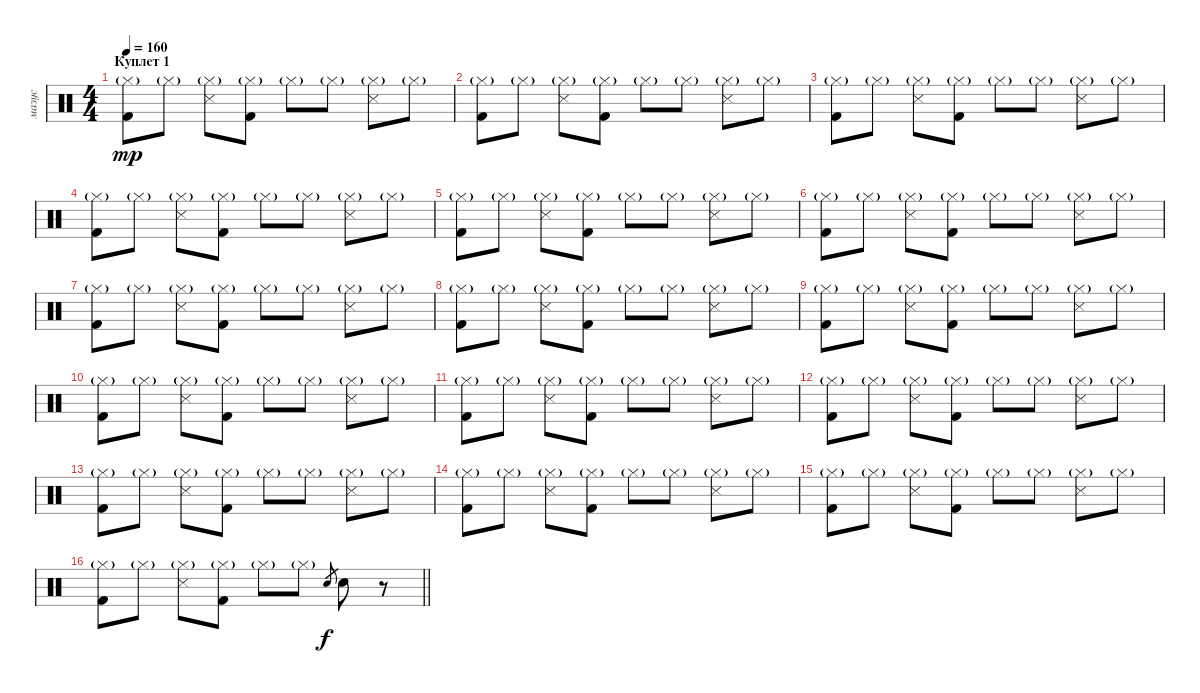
\track ("мазус" "мазус") {instrument percussion}
\staff {score}
\articulation defaults
\ts (4 4)
\section ("" "Куплет 1")
\tempo 160
\clef neutral
\ks c
("Kick (hit) 2" "Hi-Hat (closed)"{g}).8{dy mp} "Hi-Hat (closed)"{g}.8 ("Snare (side stick) 3" "Hi-Hat (closed)"{g}).8 ("Kick (hit) 2" "Hi-Hat (closed)"{g}).8 "Hi-Hat (closed)"{g}.8 "Hi-Hat (closed)"{g}.8 ("Snare (side stick) 3" "Hi-Hat (closed)"{g}).8 "Hi-Hat (closed)"{g}.8 |
("Kick (hit) 2" "Hi-Hat (closed)"{g}).8 "Hi-Hat (closed)"{g}.8 ("Snare (side stick) 3" "Hi-Hat (closed)"{g}).8 ("Kick (hit) 2" "Hi-Hat (closed)"{g}).8 "Hi-Hat (closed)"{g}.8 "Hi-Hat (closed)"{g}.8 ("Snare (side stick) 3" "Hi-Hat (closed)"{g}).8 "Hi-Hat (closed)"{g}.8 |
("Kick (hit) 2" "Hi-Hat (closed)"{g}).8 "Hi-Hat (closed)"{g}.8 ("Snare (side stick) 3" "Hi-Hat (closed)"{g}).8 ("Kick (hit) 2" "Hi-Hat (closed)"{g}).8 "Hi-Hat (closed)"{g}.8 "Hi-Hat (closed)"{g}.8 ("Snare (side stick) 3" "Hi-Hat (closed)"{g}).8 "Hi-Hat (closed)"{g}.8 |
("Kick (hit) 2" "Hi-Hat (closed)"{g}).8 "Hi-Hat (closed)"{g}.8 ("Snare (side stick) 3" "Hi-Hat (closed)"{g}).8 ("Kick (hit) 2" "Hi-Hat (closed)"{g}).8 "Hi-Hat (closed)"{g}.8 "Hi-Hat (closed)"{g}.8 ("Snare (side stick) 3" "Hi-Hat (closed)"{g}).8 "Hi-Hat (closed)"{g}.8 |
("Kick (hit) 2" "Hi-Hat (closed)"{g}).8 "Hi-Hat (closed)"{g}.8 ("Snare (side stick) 3" "Hi-Hat (closed)"{g}).8 ("Kick (hit) 2" "Hi-Hat (closed)"{g}).8 "Hi-Hat (closed)"{g}.8 "Hi-Hat (closed)"{g}.8 ("Snare (side stick) 3" "Hi-Hat (closed)"{g}).8 "Hi-Hat (closed)"{g}.8 |
("Kick (hit) 2" "Hi-Hat (closed)"{g}).8 "Hi-Hat (closed)"{g}.8 ("Snare (side stick) 3" "Hi-Hat (closed)"{g}).8 ("Kick (hit) 2" "Hi-Hat (closed)"{g}).8 "Hi-Hat (closed)"{g}.8 "Hi-Hat (closed)"{g}.8 ("Snare (side stick) 3" "Hi-Hat (closed)"{g}).8 "Hi-Hat (closed)"{g}.8 |
("Kick (hit) 2" "Hi-Hat (closed)"{g}).8 "Hi-Hat (closed)"{g}.8 ("Snare (side stick) 3" "Hi-Hat (closed)"{g}).8 ("Kick (hit) 2" "Hi-Hat (closed)"{g}).8 "Hi-Hat (closed)"{g}.8 "Hi-Hat (closed)"{g}.8 ("Snare (side stick) 3" "Hi-Hat (closed)"{g}).8 "Hi-Hat (closed)"{g}.8 |
("Kick (hit) 2" "Hi-Hat (closed)"{g}).8 "Hi-Hat (closed)"{g}.8 ("Snare (side stick) 3" "Hi-Hat (closed)"{g}).8 ("Kick (hit) 2" "Hi-Hat (closed)"{g}).8 "Hi-Hat (closed)"{g}.8 "Hi-Hat (closed)"{g}.8 ("Snare (side stick) 3" "Hi-Hat (closed)"{g}).8 "Hi-Hat (closed)"{g}.8 |
("Kick (hit) 2" "Hi-Hat (closed)"{g}).8 "Hi-Hat (closed)"{g}.8 ("Snare (side stick) 3" "Hi-Hat (closed)"{g}).8 ("Kick (hit) 2" "Hi-Hat (closed)"{g}).8 "Hi-Hat (closed)"{g}.8 "Hi-Hat (closed)"{g}.8 ("Snare (side stick) 3" "Hi-Hat (closed)"{g}).8 "Hi-Hat (closed)"{g}.8 |
("Kick (hit) 2" "Hi-Hat (closed)"{g}).8 "Hi-Hat (closed)"{g}.8 ("Snare (side stick) 3" "Hi-Hat (closed)"{g}).8 ("Kick (hit) 2" "Hi-Hat (closed)"{g}).8 "Hi-Hat (closed)"{g}.8 "Hi-Hat (closed)"{g}.8 ("Snare (side stick) 3" "Hi-Hat (closed)"{g}).8 "Hi-Hat (closed)"{g}.8 |
("Kick (hit) 2" "Hi-Hat (closed)"{g}).8 "Hi-Hat (closed)"{g}.8 ("Snare (side stick) 3" "Hi-Hat (closed)"{g}).8 ("Kick (hit) 2" "Hi-Hat (closed)"{g}).8 "Hi-Hat (closed)"{g}.8 "Hi-Hat (closed)"{g}.8 ("Snare (side stick) 3" "Hi-Hat (closed)"{g}).8 "Hi-Hat (closed)"{g}.8 |
("Kick (hit) 2" "Hi-Hat (closed)"{g}).8 "Hi-Hat (closed)"{g}.8 ("Snare (side stick) 3" "Hi-Hat (closed)"{g}).8 ("Kick (hit) 2" "Hi-Hat (closed)"{g}).8 "Hi-Hat (closed)"{g}.8 "Hi-Hat (closed)"{g}.8 ("Snare (side stick) 3" "Hi-Hat (closed)"{g}).8 "Hi-Hat (closed)"{g}.8 |
("Kick (hit) 2" "Hi-Hat (closed)"{g}).8 "Hi-Hat (closed)"{g}.8 ("Snare (side stick) 3" "Hi-Hat (closed)"{g}).8 ("Kick (hit) 2" "Hi-Hat (closed)"{g}).8 "Hi-Hat (closed)"{g}.8 "Hi-Hat (closed)"{g}.8 ("Snare (side stick) 3" "Hi-Hat (closed)"{g}).8 "Hi-Hat (closed)"{g}.8 |
("Kick (hit) 2" "Hi-Hat (closed)"{g}).8 "Hi-Hat (closed)"{g}.8 ("Snare (side stick) 3" "Hi-Hat (closed)"{g}).8 ("Kick (hit) 2" "Hi-Hat (closed)"{g}).8 "Hi-Hat (closed)"{g}.8 "Hi-Hat (closed)"{g}.8 ("Snare (side stick) 3" "Hi-Hat (closed)"{g}).8 "Hi-Hat (closed)"{g}.8 |
("Kick (hit) 2" "Hi-Hat (closed)"{g}).8 "Hi-Hat (closed)"{g}.8 ("Snare (side stick) 3" "Hi-Hat (closed)"{g}).8 ("Kick (hit) 2" "Hi-Hat (closed)"{g}).8 "Hi-Hat (closed)"{g}.8 "Hi-Hat (closed)"{g}.8 ("Snare (side stick) 3" "Hi-Hat (closed)"{g}).8 "Hi-Hat (closed)"{g}.8 |
\barLineRight lightlight
("Kick (hit) 2" "Hi-Hat (closed)"{g}).8 "Hi-Hat (closed)"{g}.8 ("Snare (side stick) 3" "Hi-Hat (closed)"{g}).8 ("Kick (hit) 2" "Hi-Hat (closed)"{g}).8 "Hi-Hat (closed)"{g}.8 "Hi-Hat (closed)"{g}.8 "Electric Snare (hit)".8{gr dy f} "Electric Snare (hit)".8 r.8
